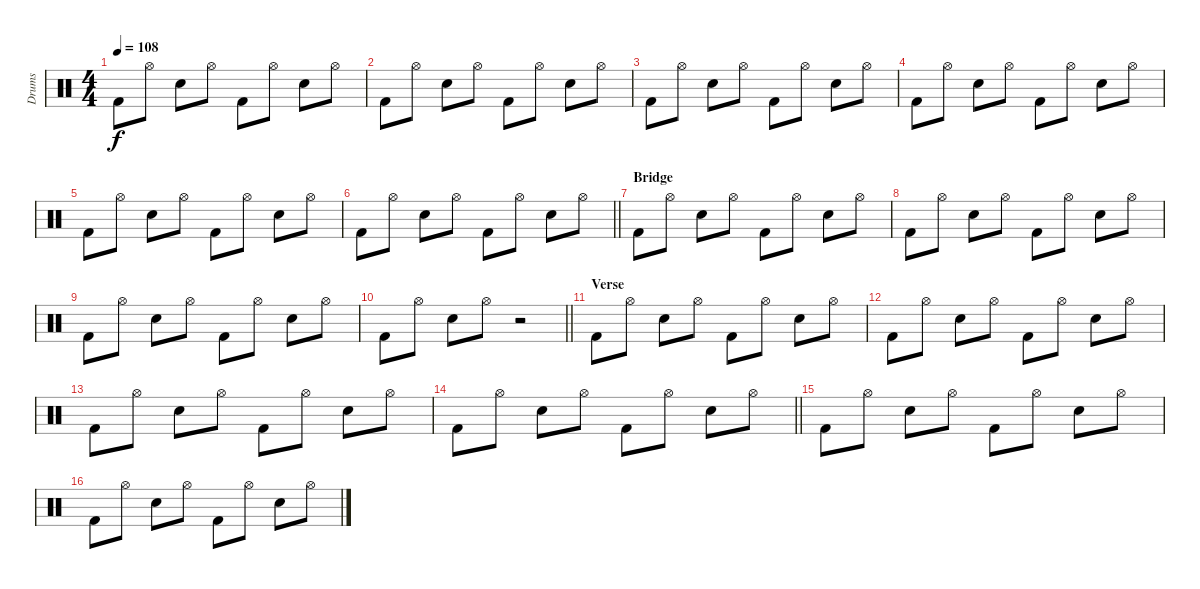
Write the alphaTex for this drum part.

\track ("Drums" "Drums") {instrument percussion}
\staff {score}
\articulation defaults
\ts (4 4)
\tempo 108
\clef neutral
\ks c "Kick (hit) 2".8{dy f} "Hi-Hat (open)".8 "Snare (hit) 2".8 "Hi-Hat (open)".8 "Kick (hit) 2".8 "Hi-Hat (open)".8 "Snare (hit) 2".8 "Hi-Hat (open)".8
|
"Kick (hit) 2".8 "Hi-Hat (open)".8 "Snare (hit) 2".8 "Hi-Hat (open)".8 "Kick (hit) 2".8 "Hi-Hat (open)".8 "Snare (hit) 2".8 "Hi-Hat (open)".8 |
"Kick (hit) 2".8 "Hi-Hat (open)".8 "Snare (hit) 2".8 "Hi-Hat (open)".8 "Kick (hit) 2".8 "Hi-Hat (open)".8 "Snare (hit) 2".8 "Hi-Hat (open)".8 |
"Kick (hit) 2".8 "Hi-Hat (open)".8 "Snare (hit) 2".8 "Hi-Hat (open)".8 "Kick (hit) 2".8 "Hi-Hat (open)".8 "Snare (hit) 2".8 "Hi-Hat (open)".8 |
"Kick (hit) 2".8 "Hi-Hat (open)".8 "Snare (hit) 2".8 "Hi-Hat (open)".8 "Kick (hit) 2".8 "Hi-Hat (open)".8 "Snare (hit) 2".8 "Hi-Hat (open)".8 |
\barLineRight lightlight "Kick (hit) 2".8 "Hi-Hat (open)".8 "Snare (hit) 2".8 "Hi-Hat (open)".8 "Kick (hit) 2".8 "Hi-Hat (open)".8 "Snare (hit) 2".8 "Hi-Hat (open)".8
|
\section ("" "Bridge")
"Kick (hit) 2".8 "Hi-Hat (open)".8 "Snare (hit) 2".8 "Hi-Hat (open)".8 "Kick (hit) 2".8 "Hi-Hat (open)".8 "Snare (hit) 2".8 "Hi-Hat (open)".8 |
"Kick (hit) 2".8 "Hi-Hat (open)".8 "Snare (hit) 2".8 "Hi-Hat (open)".8 "Kick (hit) 2".8 "Hi-Hat (open)".8 "Snare (hit) 2".8 "Hi-Hat (open)".8 |
"Kick (hit) 2".8 "Hi-Hat (open)".8 "Snare (hit) 2".8 "Hi-Hat (open)".8 "Kick (hit) 2".8 "Hi-Hat (open)".8 "Snare (hit) 2".8 "Hi-Hat (open)".8 |
\barLineRight lightlight "Kick (hit) 2".8 "Hi-Hat (open)".8 "Snare (hit) 2".8 "Hi-Hat (open)".8
r.2 |
\section ("" "Verse")
"Kick (hit) 2".8 "Hi-Hat (open)".8 "Snare (hit) 2".8 "Hi-Hat (open)".8 "Kick (hit) 2".8 "Hi-Hat (open)".8 "Snare (hit) 2".8 "Hi-Hat (open)".8 |
"Kick (hit) 2".8 "Hi-Hat (open)".8 "Snare (hit) 2".8 "Hi-Hat (open)".8 "Kick (hit) 2".8 "Hi-Hat (open)".8 "Snare (hit) 2".8 "Hi-Hat (open)".8 |
"Kick (hit) 2".8 "Hi-Hat (open)".8 "Snare (hit) 2".8 "Hi-Hat (open)".8 "Kick (hit) 2".8 "Hi-Hat (open)".8 "Snare (hit) 2".8 "Hi-Hat (open)".8 |
\barLineRight lightlight "Kick (hit) 2".8 "Hi-Hat (open)".8 "Snare (hit) 2".8 "Hi-Hat (open)".8 "Kick (hit) 2".8 "Hi-Hat (open)".8 "Snare (hit) 2".8 "Hi-Hat (open)".8
|
"Kick (hit) 2".8 "Hi-Hat (open)".8 "Snare (hit) 2".8 "Hi-Hat (open)".8 "Kick (hit) 2".8 "Hi-Hat (open)".8 "Snare (hit) 2".8 "Hi-Hat (open)".8 |
"Kick (hit) 2".8 "Hi-Hat (open)".8 "Snare (hit) 2".8 "Hi-Hat (open)".8 "Kick (hit) 2".8 "Hi-Hat (open)".8 "Snare (hit) 2".8 "Hi-Hat (open)".8
